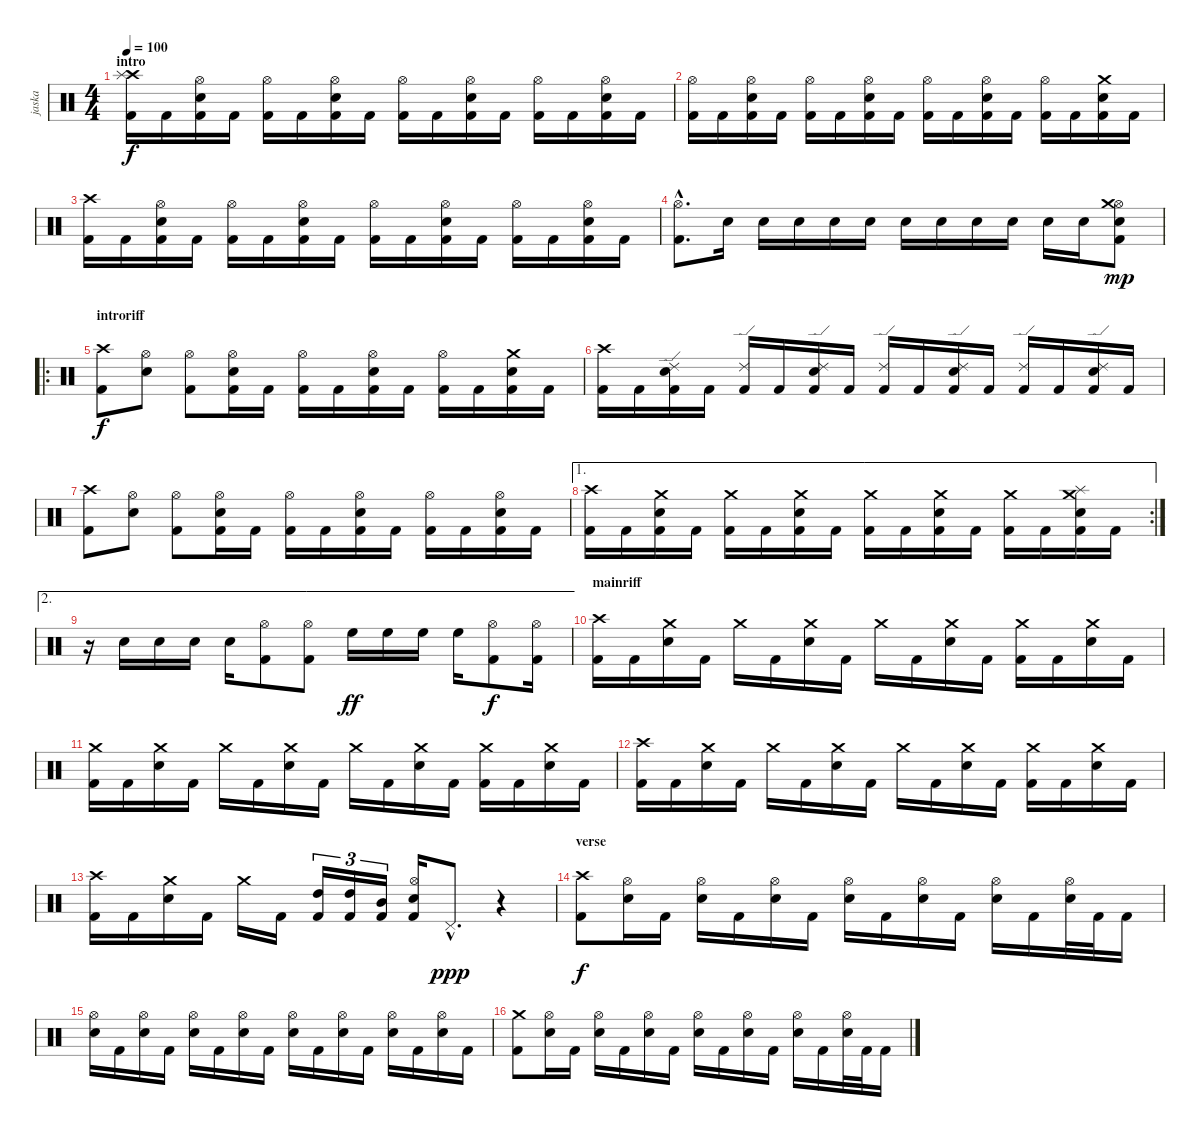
\track ("jaska" "jaska") {instrument percussion}
\staff {score}
\articulation defaults
\ts (4 4)
\section ("" "intro")
\tempo 100
\clef neutral
\ks c
("Crash high (hit)" "Splash (hit)" "Kick (hit) 2").16{dy f} "Kick (hit) 2".16 ("Hi-Hat (open)" "Electric Snare (hit)" "Kick (hit) 2").16 "Kick (hit) 2".16 ("Hi-Hat (open)" "Kick (hit) 2").16 "Kick (hit) 2".16 ("Hi-Hat (open)" "Electric Snare (hit)" "Kick (hit) 2").16 "Kick (hit) 2".16 ("Hi-Hat (open)" "Kick (hit) 2").16 "Kick (hit) 2".16 ("Hi-Hat (open)" "Electric Snare (hit)" "Kick (hit) 2").16 "Kick (hit) 2".16 ("Hi-Hat (open)" "Kick (hit) 2").16 "Kick (hit) 2".16 ("Hi-Hat (open)" "Electric Snare (hit)" "Kick (hit) 2").16 "Kick (hit) 2".16 |
("Hi-Hat (open)" "Kick (hit) 2").16 "Kick (hit) 2".16 ("Hi-Hat (open)" "Electric Snare (hit)" "Kick (hit) 2").16 "Kick (hit) 2".16 ("Hi-Hat (open)" "Kick (hit) 2").16 "Kick (hit) 2".16 ("Hi-Hat (open)" "Electric Snare (hit)" "Kick (hit) 2").16 "Kick (hit) 2".16 ("Hi-Hat (open)" "Kick (hit) 2").16 "Kick (hit) 2".16 ("Hi-Hat (open)" "Electric Snare (hit)" "Kick (hit) 2").16 "Kick (hit) 2".16 ("Hi-Hat (open)" "Kick (hit) 2").16 "Kick (hit) 2".16 ("Crash medium (hit)" "Electric Snare (hit)" "Kick (hit) 2").16 "Kick (hit) 2".16 |
("Crash high (hit)" "Kick (hit) 2").16 "Kick (hit) 2".16 ("Hi-Hat (open)" "Electric Snare (hit)" "Kick (hit) 2").16 "Kick (hit) 2".16 ("Hi-Hat (open)" "Kick (hit) 2").16 "Kick (hit) 2".16 ("Hi-Hat (open)" "Electric Snare (hit)" "Kick (hit) 2").16 "Kick (hit) 2".16 ("Hi-Hat (open)" "Kick (hit) 2").16 "Kick (hit) 2".16 ("Hi-Hat (open)" "Electric Snare (hit)" "Kick (hit) 2").16 "Kick (hit) 2".16 ("Hi-Hat (open)" "Kick (hit) 2").16 "Kick (hit) 2".16 ("Hi-Hat (open)" "Electric Snare (hit)" "Kick (hit) 2").16 "Kick (hit) 2".16 |
("Hi-Hat (open)"{hac} "Kick (hit) 2"{hac}).8{d} "Electric Snare (hit)".16 "Electric Snare (hit)".16 "Electric Snare (hit)".16 "Electric Snare (hit)".16 "Electric Snare (hit)".16 "Electric Snare (hit)".16 "Electric Snare (hit)".16 "Electric Snare (hit)".16 "Electric Snare (hit)".16 "Electric Snare (hit)".16 "Electric Snare (hit)".16 ("Hi-Hat (open)" "Crash medium (hit)" "Electric Snare (hit)" "Kick (hit) 2").8{dy mp} |
\ro
\section ("" "introriff")
("Crash high (hit)" "Kick (hit) 2").8{dy f} ("Hi-Hat (open)" "Electric Snare (hit)").8 ("Hi-Hat (open)" "Kick (hit) 2").8 ("Hi-Hat (open)" "Electric Snare (hit)" "Kick (hit) 2").16 "Kick (hit) 2".16 ("Hi-Hat (open)" "Kick (hit) 2").16 "Kick (hit) 2".16 ("Hi-Hat (open)" "Electric Snare (hit)" "Kick (hit) 2").16 "Kick (hit) 2".16 ("Hi-Hat (open)" "Kick (hit) 2").16 "Kick (hit) 2".16 ("Crash medium (hit)" "Electric Snare (hit)" "Kick (hit) 2").16 "Kick (hit) 2".16 |
("Crash high (hit)" "Kick (hit) 2").16 "Kick (hit) 2".16 ("Ride (edge) 2" "Electric Snare (hit)" "Kick (hit) 2").16 "Kick (hit) 2".16 ("Ride (edge) 2" "Kick (hit) 2").16 "Kick (hit) 2".16 ("Ride (edge) 2" "Electric Snare (hit)" "Kick (hit) 2").16 "Kick (hit) 2".16 ("Ride (edge) 2" "Kick (hit) 2").16 "Kick (hit) 2".16 ("Ride (edge) 2" "Electric Snare (hit)" "Kick (hit) 2").16 "Kick (hit) 2".16 ("Ride (edge) 2" "Kick (hit) 2").16 "Kick (hit) 2".16 ("Ride (edge) 2" "Electric Snare (hit)" "Kick (hit) 2").16 "Kick (hit) 2".16 |
("Crash high (hit)" "Kick (hit) 2").8 ("Hi-Hat (open)" "Electric Snare (hit)").8 ("Hi-Hat (open)" "Kick (hit) 2").8 ("Hi-Hat (open)" "Electric Snare (hit)" "Kick (hit) 2").16 "Kick (hit) 2".16 ("Hi-Hat (open)" "Kick (hit) 2").16 "Kick (hit) 2".16 ("Hi-Hat (open)" "Electric Snare (hit)" "Kick (hit) 2").16 "Kick (hit) 2".16 ("Hi-Hat (open)" "Kick (hit) 2").16 "Kick (hit) 2".16 ("Hi-Hat (open)" "Electric Snare (hit)" "Kick (hit) 2").16 "Kick (hit) 2".16 |
\ae 1
\rc 2
("Crash high (hit)" "Kick (hit) 2").16 "Kick (hit) 2".16 ("Crash medium (hit)" "Electric Snare (hit)" "Kick (hit) 2").16 "Kick (hit) 2".16 ("Crash medium (hit)" "Kick (hit) 2").16 "Kick (hit) 2".16 ("Crash medium (hit)" "Electric Snare (hit)" "Kick (hit) 2").16 "Kick (hit) 2".16 ("Crash medium (hit)" "Kick (hit) 2").16 "Kick (hit) 2".16 ("Crash medium (hit)" "Electric Snare (hit)" "Kick (hit) 2").16 "Kick (hit) 2".16 ("Crash medium (hit)" "Kick (hit) 2").16 "Kick (hit) 2".16 ("Crash medium (hit)" "Splash (hit)" "Electric Snare (hit)" "Kick (hit) 2").16 "Kick (hit) 2".16 |
\ae 2
r.16 "Electric Snare (hit)".16 "Electric Snare (hit)".16 "Electric Snare (hit)".16 "Electric Snare (hit)".16 ("Hi-Hat (open)" "Kick (hit) 2").8 ("Hi-Hat (open)" "Kick (hit) 2").8 "High Floor Tom (hit)".16{dy ff} "High Floor Tom (hit)".16 "High Floor Tom (hit)".16 "High Floor Tom (hit)".16 ("Hi-Hat (open)" "Kick (hit) 2").8{dy f} ("Hi-Hat (open)" "Kick (hit) 2").16 |
\section ("" "mainriff")
("Crash high (hit)" "Kick (hit) 2").16 "Kick (hit) 2".16 ("Crash medium (hit)" "Electric Snare (hit)").16 "Kick (hit) 2".16 "Crash medium (hit)".16 "Kick (hit) 2".16 ("Crash medium (hit)" "Electric Snare (hit)").16 "Kick (hit) 2".16 "Crash medium (hit)".16 "Kick (hit) 2".16 ("Crash medium (hit)" "Electric Snare (hit)").16 "Kick (hit) 2".16 ("Crash medium (hit)" "Kick (hit) 2").16 "Kick (hit) 2".16 ("Crash medium (hit)" "Electric Snare (hit)").16 "Kick (hit) 2".16 |
("Crash medium (hit)" "Kick (hit) 2").16 "Kick (hit) 2".16 ("Crash medium (hit)" "Electric Snare (hit)").16 "Kick (hit) 2".16 "Crash medium (hit)".16 "Kick (hit) 2".16 ("Crash medium (hit)" "Electric Snare (hit)").16 "Kick (hit) 2".16 "Crash medium (hit)".16 "Kick (hit) 2".16 ("Crash medium (hit)" "Electric Snare (hit)").16 "Kick (hit) 2".16 ("Crash medium (hit)" "Kick (hit) 2").16 "Kick (hit) 2".16 ("Crash medium (hit)" "Electric Snare (hit)").16 "Kick (hit) 2".16 |
("Crash high (hit)" "Kick (hit) 2").16 "Kick (hit) 2".16 ("Crash medium (hit)" "Electric Snare (hit)").16 "Kick (hit) 2".16 "Crash medium (hit)".16 "Kick (hit) 2".16 ("Crash medium (hit)" "Electric Snare (hit)").16 "Kick (hit) 2".16 "Crash medium (hit)".16 "Kick (hit) 2".16 ("Crash medium (hit)" "Electric Snare (hit)").16 "Kick (hit) 2".16 ("Crash medium (hit)" "Kick (hit) 2").16 "Kick (hit) 2".16 ("Crash medium (hit)" "Electric Snare (hit)").16 "Kick (hit) 2".16 |
("Crash high (hit)" "Kick (hit) 2").16 "Kick (hit) 2".16 ("Crash medium (hit)" "Electric Snare (hit)").16 "Kick (hit) 2".16 "Crash medium (hit)".16 "Kick (hit) 2".16 ("High Tom (hit)" "Kick (hit) 2").16{tu (3 2)} ("High Tom (hit)" "Kick (hit) 2").16{tu (3 2)} ("Mid Tom (hit)" "Kick (hit) 2").16{tu (3 2)} ("Hi-Hat (open)" "Electric Snare (hit)" "Kick (hit) 2").16 "Pedal Hi-Hat (hit)"{hac}.8{d dy ppp} r.4 |
\section ("" "verse")
("Crash high (hit)" "Kick (hit) 2").8{dy f} ("Hi-Hat (open)" "Electric Snare (hit)").16 "Kick (hit) 2".16 ("Hi-Hat (open)" "Electric Snare (hit)").16 "Kick (hit) 2".16 ("Hi-Hat (open)" "Electric Snare (hit)").16 "Kick (hit) 2".16 ("Hi-Hat (open)" "Electric Snare (hit)").16 "Kick (hit) 2".16 ("Hi-Hat (open)" "Electric Snare (hit)").16 "Kick (hit) 2".16 ("Hi-Hat (open)" "Electric Snare (hit)").16 "Kick (hit) 2".16 ("Hi-Hat (open)" "Electric Snare (hit)").32 "Kick (hit) 2".32 "Kick (hit) 2".16 |
("Hi-Hat (open)" "Electric Snare (hit)").16 "Kick (hit) 2".16 ("Hi-Hat (open)" "Electric Snare (hit)").16 "Kick (hit) 2".16 ("Hi-Hat (open)" "Electric Snare (hit)").16 "Kick (hit) 2".16 ("Hi-Hat (open)" "Electric Snare (hit)").16 "Kick (hit) 2".16 ("Hi-Hat (open)" "Electric Snare (hit)").16 "Kick (hit) 2".16 ("Hi-Hat (open)" "Electric Snare (hit)").16 "Kick (hit) 2".16 ("Hi-Hat (open)" "Electric Snare (hit)").16 "Kick (hit) 2".16 ("Hi-Hat (open)" "Electric Snare (hit)").16 "Kick (hit) 2".16 |
("Crash medium (hit)" "Kick (hit) 2").8 ("Hi-Hat (open)" "Electric Snare (hit)").16 "Kick (hit) 2".16 ("Hi-Hat (open)" "Electric Snare (hit)").16 "Kick (hit) 2".16 ("Hi-Hat (open)" "Electric Snare (hit)").16 "Kick (hit) 2".16 ("Hi-Hat (open)" "Electric Snare (hit)").16 "Kick (hit) 2".16 ("Hi-Hat (open)" "Electric Snare (hit)").16 "Kick (hit) 2".16 ("Hi-Hat (open)" "Electric Snare (hit)").16 "Kick (hit) 2".16 ("Hi-Hat (open)" "Electric Snare (hit)").32 "Kick (hit) 2".32 "Kick (hit) 2".16
